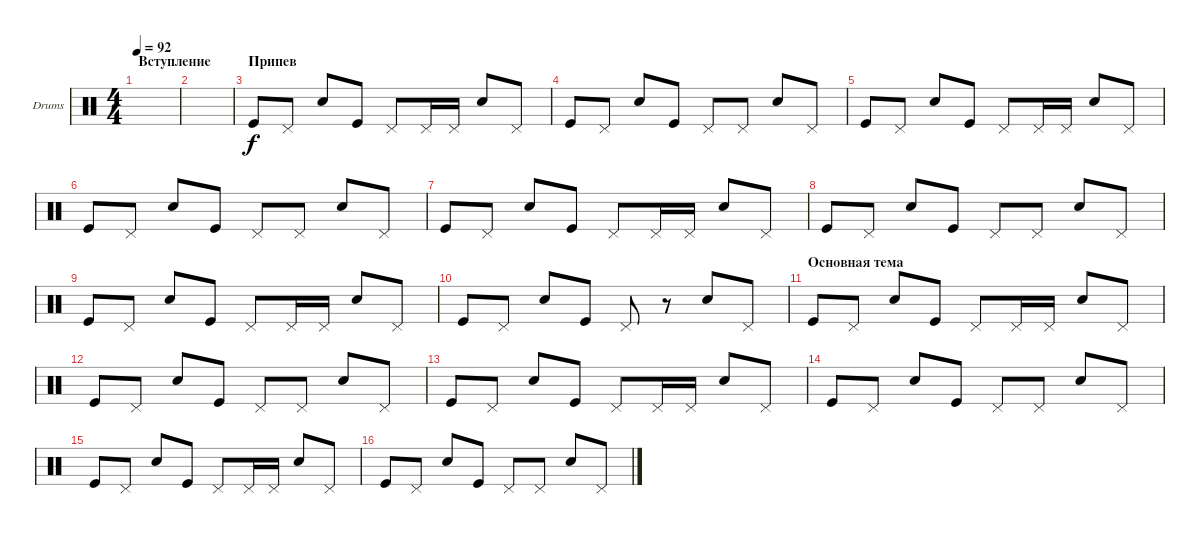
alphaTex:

\defaultSystemsLayout 4
\bracketExtendMode groupsimilarinstruments
\firstSystemTrackNameOrientation horizontal
\otherSystemsTrackNameOrientation horizontal
\track ("Drumkit" "Drums") {instrument percussion}
\staff {score}
\articulation defaults
\ts (4 4)
\section ("" "Вступление")
\tempo 92
\clef neutral
\ks c
|
|
\section ("" "Припев")
"Kick (hit)".8 "Pedal Hi-Hat (hit)".8 "Snare (hit) 2".8 "Kick (hit)".8 "Pedal Hi-Hat (hit)".8 "Pedal Hi-Hat (hit)".16 "Pedal Hi-Hat (hit)".16 "Snare (hit) 2".8 "Pedal Hi-Hat (hit)".8 |
"Kick (hit)".8 "Pedal Hi-Hat (hit)".8 "Snare (hit) 2".8 "Kick (hit)".8 "Pedal Hi-Hat (hit)".8 "Pedal Hi-Hat (hit)".8 "Snare (hit) 2".8 "Pedal Hi-Hat (hit)".8 |
"Kick (hit)".8 "Pedal Hi-Hat (hit)".8 "Snare (hit) 2".8 "Kick (hit)".8 "Pedal Hi-Hat (hit)".8 "Pedal Hi-Hat (hit)".16 "Pedal Hi-Hat (hit)".16 "Snare (hit) 2".8 "Pedal Hi-Hat (hit)".8 |
"Kick (hit)".8 "Pedal Hi-Hat (hit)".8 "Snare (hit) 2".8 "Kick (hit)".8 "Pedal Hi-Hat (hit)".8 "Pedal Hi-Hat (hit)".8 "Snare (hit) 2".8 "Pedal Hi-Hat (hit)".8 |
"Kick (hit)".8 "Pedal Hi-Hat (hit)".8 "Snare (hit) 2".8 "Kick (hit)".8 "Pedal Hi-Hat (hit)".8 "Pedal Hi-Hat (hit)".16 "Pedal Hi-Hat (hit)".16 "Snare (hit) 2".8 "Pedal Hi-Hat (hit)".8 |
"Kick (hit)".8 "Pedal Hi-Hat (hit)".8 "Snare (hit) 2".8 "Kick (hit)".8 "Pedal Hi-Hat (hit)".8 "Pedal Hi-Hat (hit)".8 "Snare (hit) 2".8 "Pedal Hi-Hat (hit)".8 |
"Kick (hit)".8 "Pedal Hi-Hat (hit)".8 "Snare (hit) 2".8 "Kick (hit)".8 "Pedal Hi-Hat (hit)".8 "Pedal Hi-Hat (hit)".16 "Pedal Hi-Hat (hit)".16 "Snare (hit) 2".8 "Pedal Hi-Hat (hit)".8 |
"Kick (hit)".8 "Pedal Hi-Hat (hit)".8 "Snare (hit) 2".8 "Kick (hit)".8 "Pedal Hi-Hat (hit)".8 r.8 "Snare (hit) 2".8 "Pedal Hi-Hat (hit)".8 |
\section ("" "Основная тема")
"Kick (hit)".8 "Pedal Hi-Hat (hit)".8 "Snare (hit) 2".8 "Kick (hit)".8 "Pedal Hi-Hat (hit)".8 "Pedal Hi-Hat (hit)".16 "Pedal Hi-Hat (hit)".16 "Snare (hit) 2".8 "Pedal Hi-Hat (hit)".8 |
"Kick (hit)".8 "Pedal Hi-Hat (hit)".8 "Snare (hit) 2".8 "Kick (hit)".8 "Pedal Hi-Hat (hit)".8 "Pedal Hi-Hat (hit)".8 "Snare (hit) 2".8 "Pedal Hi-Hat (hit)".8 |
"Kick (hit)".8 "Pedal Hi-Hat (hit)".8 "Snare (hit) 2".8 "Kick (hit)".8 "Pedal Hi-Hat (hit)".8 "Pedal Hi-Hat (hit)".16 "Pedal Hi-Hat (hit)".16 "Snare (hit) 2".8 "Pedal Hi-Hat (hit)".8 |
"Kick (hit)".8 "Pedal Hi-Hat (hit)".8 "Snare (hit) 2".8 "Kick (hit)".8 "Pedal Hi-Hat (hit)".8 "Pedal Hi-Hat (hit)".8 "Snare (hit) 2".8 "Pedal Hi-Hat (hit)".8 |
"Kick (hit)".8 "Pedal Hi-Hat (hit)".8 "Snare (hit) 2".8 "Kick (hit)".8 "Pedal Hi-Hat (hit)".8 "Pedal Hi-Hat (hit)".16 "Pedal Hi-Hat (hit)".16 "Snare (hit) 2".8 "Pedal Hi-Hat (hit)".8 |
"Kick (hit)".8 "Pedal Hi-Hat (hit)".8 "Snare (hit) 2".8 "Kick (hit)".8 "Pedal Hi-Hat (hit)".8 "Pedal Hi-Hat (hit)".8 "Snare (hit) 2".8 "Pedal Hi-Hat (hit)".8
